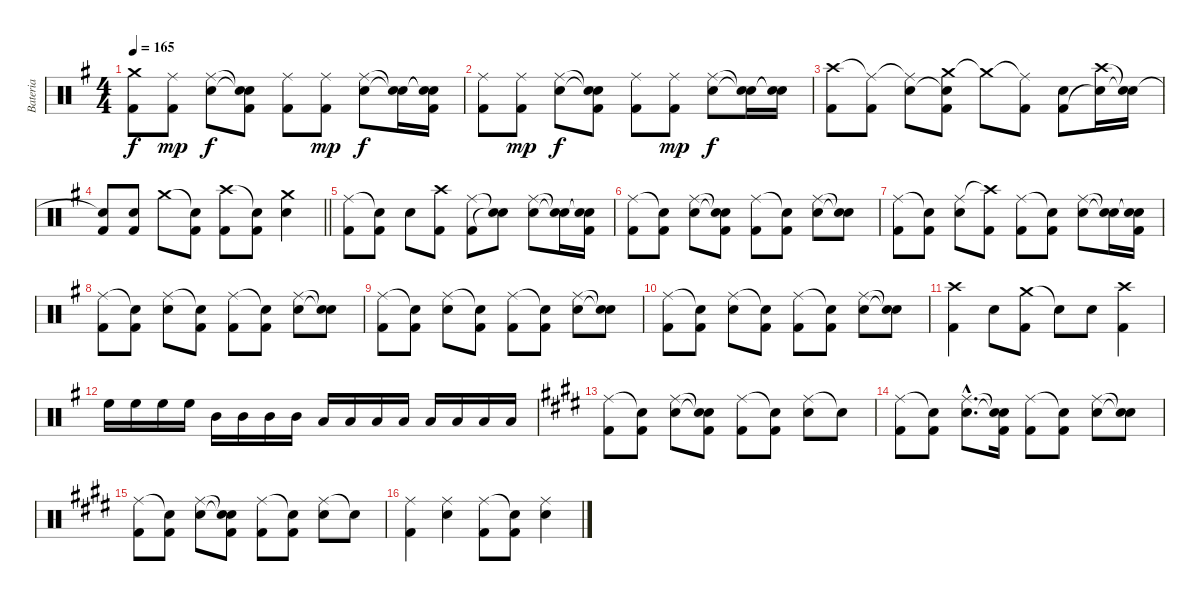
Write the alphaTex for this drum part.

\track ("Bateria" "Bateria") {instrument percussion}
\staff {score}
\articulation defaults
\ts (4 4)
\tempo 165
\clef neutral
\ks g
("Crash medium (hit)" "Kick (hit) 2").8{dy f} ("Ride (middle)" "Kick (hit) 2").8{dy mp} ("Ride (middle)" "Electric Snare (hit)").8{dy f} ("Snare (hit)"{t} "Snare (hit)"{t} "Kick (hit) 2").8 ("Ride (middle)" "Kick (hit) 2").8 ("Ride (middle)" "Kick (hit) 2").8{dy mp} ("Ride (middle)" "Electric Snare (hit)").8{dy f} ("Snare (hit)"{t} "Snare (hit)"{t}).16 ("Snare (hit)"{t} "Snare (hit)"{t} "Kick (hit) 2").16 |
("Ride (middle)" "Kick (hit) 2").8 ("Ride (middle)" "Kick (hit) 2").8{dy mp} ("Ride (middle)" "Electric Snare (hit)").8{dy f} ("Snare (hit)"{t} "Snare (hit)"{t} "Kick (hit) 2").8 ("Ride (middle)" "Kick (hit) 2").8 ("Ride (middle)" "Kick (hit) 2").8{dy mp} ("Ride (middle)" "Electric Snare (hit)").8{dy f} ("Snare (hit)"{t} "Snare (hit)"{t}).16 ("Snare (hit)"{t} "Snare (hit)"{t}).16 |
("Crash high (hit)" "Kick (hit) 2").8 ("Ride (middle)"{t} "Kick (hit) 2").8 ("Ride (middle)"{t} "Electric Snare (hit)").8 ("Crash medium (hit)" "Snare (hit)"{t} "Kick (hit) 2").8 "Crash medium (hit)"{t}.8 ("Ride (middle)"{t} "Kick (hit) 2").8 ("Electric Snare (hit)" "Kick (hit) 2").8 ("Crash high (hit)" "Snare (hit)"{t}).16 ("Snare (hit)"{t} "Snare (hit)"{t}).16 |
\barLineRight lightlight
("Snare (hit)"{t} "Kick (hit) 2").8 ("Electric Snare (hit)" "Kick (hit) 2").8 "Crash medium (hit)".8 ("Snare (hit)"{t} "Kick (hit) 2").8 ("Crash high (hit)" "Kick (hit) 2").8 ("Snare (hit)"{t} "Kick (hit) 2").8 ("Crash medium (hit)" "Electric Snare (hit)").4 |
("Ride (middle)" "Kick (hit) 2").8 ("Snare (hit)"{t} "Kick (hit) 2").8 "Electric Snare (hit)".8 ("Crash high (hit)" "Kick (hit) 2").8 ("Ride (middle)" "Kick (hit) 2").8 ("Snare (hit)"{t} "Snare (hit)"{t}).8 ("Ride (middle)" "Electric Snare (hit)").8 ("Snare (hit)"{t} "Snare (hit)"{t}).16 ("Snare (hit)"{t} "Snare (hit)"{t} "Kick (hit) 2").16 |
("Ride (middle)" "Kick (hit) 2").8 ("Snare (hit)"{t} "Kick (hit) 2").8 ("Ride (middle)" "Electric Snare (hit)").8 ("Snare (hit)"{t} "Snare (hit)"{t} "Kick (hit) 2").8 ("Ride (middle)" "Kick (hit) 2").8 ("Snare (hit)"{t} "Kick (hit) 2").8 ("Ride (middle)" "Electric Snare (hit)").8 ("Snare (hit)"{t} "Snare (hit)"{t}).8 |
("Ride (middle)" "Kick (hit) 2").8 ("Snare (hit)"{t} "Kick (hit) 2").8 ("Ride (middle)" "Electric Snare (hit)").8 ("Crash high (hit)"{t} "Kick (hit) 2").8 ("Ride (middle)" "Kick (hit) 2").8 ("Snare (hit)"{t} "Kick (hit) 2").8 ("Ride (middle)" "Electric Snare (hit)").8 ("Snare (hit)"{t} "Snare (hit)"{t}).16 ("Snare (hit)"{t} "Snare (hit)"{t} "Kick (hit) 2").16 |
("Ride (middle)" "Kick (hit) 2").8 ("Snare (hit)"{t} "Kick (hit) 2").8 ("Ride (middle)" "Electric Snare (hit)").8 ("Snare (hit)"{t} "Kick (hit) 2").8 ("Ride (middle)" "Kick (hit) 2").8 ("Snare (hit)"{t} "Kick (hit) 2").8 ("Ride (middle)" "Electric Snare (hit)").8 ("Snare (hit)"{t} "Snare (hit)"{t}).8 |
("Ride (middle)" "Kick (hit) 2").8 ("Snare (hit)"{t} "Kick (hit) 2").8 ("Ride (middle)" "Electric Snare (hit)").8 ("Snare (hit)"{t} "Kick (hit) 2").8 ("Ride (middle)" "Kick (hit) 2").8 ("Snare (hit)"{t} "Kick (hit) 2").8 ("Ride (middle)" "Electric Snare (hit)").8 ("Snare (hit)"{t} "Snare (hit)"{t}).8 |
("Ride (middle)" "Kick (hit) 2").8 ("Snare (hit)"{t} "Kick (hit) 2").8 ("Ride (middle)" "Electric Snare (hit)").8 ("Snare (hit)"{t} "Kick (hit) 2").8 ("Ride (middle)" "Kick (hit) 2").8 ("Snare (hit)"{t} "Kick (hit) 2").8 ("Ride (middle)" "Electric Snare (hit)").8 ("Snare (hit)"{t} "Snare (hit)"{t}).8 |
("Crash high (hit)" "Kick (hit) 2").4 "Electric Snare (hit)".8 ("Crash medium (hit)" "Kick (hit) 2").8 "Snare (hit)"{t}.8 "Electric Snare (hit)".8 ("Crash high (hit)" "Kick (hit) 2").4 |
"High Floor Tom (hit)".16 "High Floor Tom (hit)".16 "High Floor Tom (hit)".16 "High Floor Tom (hit)".16 "Mid Tom (hit)".16 "Mid Tom (hit)".16 "Mid Tom (hit)".16 "Mid Tom (hit)".16 "Low Tom (hit)".16 "Low Tom (hit)".16 "Low Tom (hit)".16 "Low Tom (hit)".16 "Low Floor Tom (hit)".16 "Low Floor Tom (hit)".16 "Low Floor Tom (hit)".16 "Low Floor Tom (hit)".16 |
\ks e
("Ride (middle)" "Kick (hit) 2").8 ("Snare (hit)"{t} "Kick (hit) 2").8 ("Ride (middle)" "Electric Snare (hit)").8 ("Snare (hit)"{t} "Snare (hit)"{t} "Kick (hit) 2").8 ("Ride (middle)" "Kick (hit) 2").8 ("Snare (hit)"{t} "Kick (hit) 2").8 ("Ride (middle)" "Electric Snare (hit)").8 "Snare (hit)"{t}.8 |
("Ride (middle)" "Kick (hit) 2").8 ("Snare (hit)"{t} "Kick (hit) 2").8 ("Ride (middle)"{hac} "Electric Snare (hit)"{hac}).8{d} ("Snare (hit)"{t} "Snare (hit)"{t} "Kick (hit) 2").16 ("Ride (middle)" "Kick (hit) 2").8 ("Snare (hit)"{t} "Kick (hit) 2").8 ("Ride (middle)" "Electric Snare (hit)").8 ("Snare (hit)"{t} "Snare (hit)"{t}).8 |
("Ride (middle)" "Kick (hit) 2").8 ("Snare (hit)"{t} "Kick (hit) 2").8 ("Ride (middle)" "Electric Snare (hit)").8 ("Snare (hit)"{t} "Snare (hit)"{t} "Kick (hit) 2").8 ("Ride (middle)" "Kick (hit) 2").8 ("Snare (hit)"{t} "Kick (hit) 2").8 ("Ride (middle)" "Electric Snare (hit)").8 "Snare (hit)"{t}.8 |
("Ride (middle)" "Kick (hit) 2").4 ("Ride (middle)" "Electric Snare (hit)").4 ("Ride (middle)" "Kick (hit) 2").8 ("Snare (hit)"{t} "Kick (hit) 2").8 ("Ride (middle)" "Electric Snare (hit)").4
